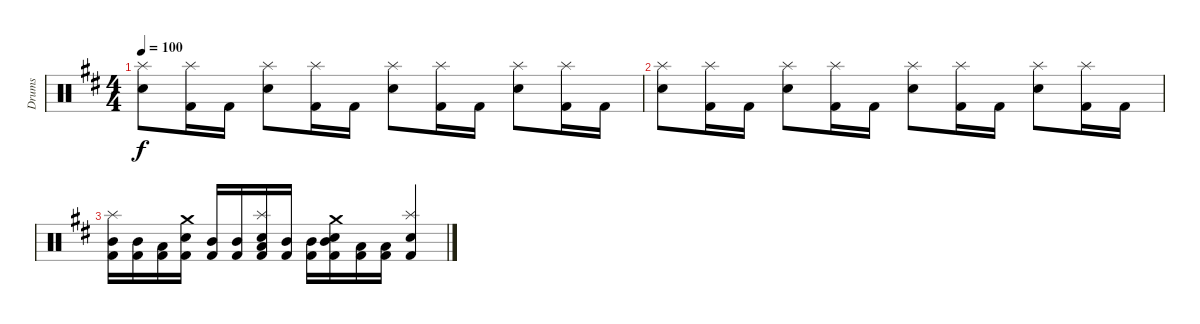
\track ("Drums" "Drums") {instrument percussion}
\staff {score}
\articulation defaults
\ts (4 4)
\tempo 100
\clef neutral
\ks d
("Electric Snare (hit)" "Splash (hit)").8{dy f} ("Kick (hit) 2" "Splash (hit)").16 "Kick (hit) 2".16 ("Electric Snare (hit)" "Splash (hit)").8 ("Kick (hit) 2" "Splash (hit)").16 "Kick (hit) 2".16 ("Electric Snare (hit)" "Splash (hit)").8 ("Kick (hit) 2" "Splash (hit)").16 "Kick (hit) 2".16 ("Electric Snare (hit)" "Splash (hit)").8 ("Kick (hit) 2" "Splash (hit)").16 "Kick (hit) 2".16 |
("Electric Snare (hit)" "Splash (hit)").8 ("Kick (hit) 2" "Splash (hit)").16 "Kick (hit) 2".16 ("Electric Snare (hit)" "Splash (hit)").8 ("Kick (hit) 2" "Splash (hit)").16 "Kick (hit) 2".16 ("Electric Snare (hit)" "Splash (hit)").8 ("Kick (hit) 2" "Splash (hit)").16 "Kick (hit) 2".16 ("Electric Snare (hit)" "Splash (hit)").8 ("Kick (hit) 2" "Splash (hit)").16 "Kick (hit) 2".16 |
("Mid Tom (hit)" "Kick (hit) 2" "Splash (hit)").16 ("Mid Tom (hit)" "Kick (hit) 2").16 ("Low Tom (hit)" "Kick (hit) 2").16 ("Electric Snare (hit)" "Kick (hit) 2" "Crash medium (hit)").16 ("Mid Tom (hit)" "Kick (hit) 2").16 ("Mid Tom (hit)" "Kick (hit) 2").16 ("Low Tom (hit)" "Electric Snare (hit)" "Kick (hit) 2" "Splash (hit)").16 ("Mid Tom (hit)" "Kick (hit) 2").16 ("Mid Tom (hit)" "Kick (hit) 2").16 ("Mid Tom (hit)" "Electric Snare (hit)" "Kick (hit) 2" "Crash medium (hit)").16 ("Low Tom (hit)" "Kick (hit) 2").16 ("Low Tom (hit)" "Kick (hit) 2").16 ("Electric Snare (hit)" "Kick (hit) 2" "Splash (hit)").4
